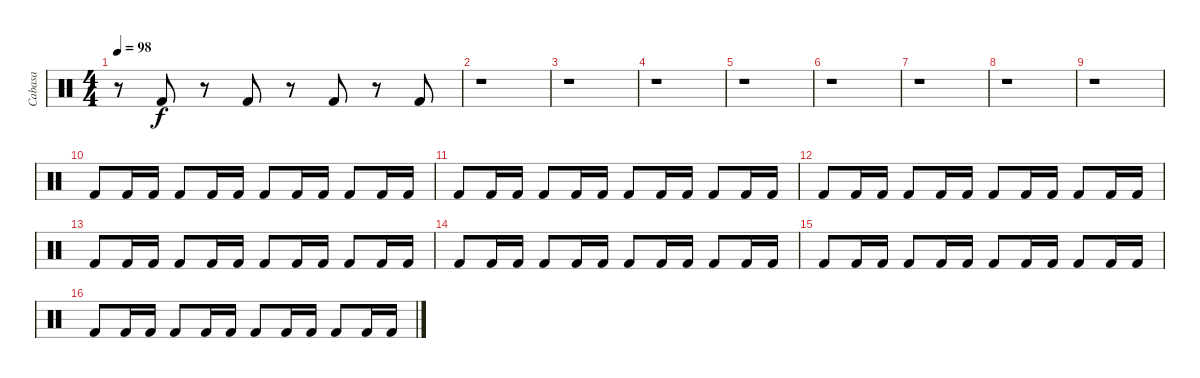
\track ("Cabasa" "Cabasa") {instrument percussion}
\staff {score}
\articulation defaults
\ts (4 4)
\tempo 98
\clef neutral
\ks c
r.8{dy f} "Kick (hit) 2".8 r.8 "Kick (hit) 2".8 r.8 "Kick (hit) 2".8 r.8 "Kick (hit) 2".8 |
r.1 |
r.1 |
r.1 |
r.1 |
r.1 |
r.1 |
r.1 |
r.1 |
"Kick (hit) 2".8 "Kick (hit) 2".16 "Kick (hit) 2".16 "Kick (hit) 2".8 "Kick (hit) 2".16 "Kick (hit) 2".16 "Kick (hit) 2".8 "Kick (hit) 2".16 "Kick (hit) 2".16 "Kick (hit) 2".8 "Kick (hit) 2".16 "Kick (hit) 2".16 |
"Kick (hit) 2".8 "Kick (hit) 2".16 "Kick (hit) 2".16 "Kick (hit) 2".8 "Kick (hit) 2".16 "Kick (hit) 2".16 "Kick (hit) 2".8 "Kick (hit) 2".16 "Kick (hit) 2".16 "Kick (hit) 2".8 "Kick (hit) 2".16 "Kick (hit) 2".16 |
"Kick (hit) 2".8 "Kick (hit) 2".16 "Kick (hit) 2".16 "Kick (hit) 2".8 "Kick (hit) 2".16 "Kick (hit) 2".16 "Kick (hit) 2".8 "Kick (hit) 2".16 "Kick (hit) 2".16 "Kick (hit) 2".8 "Kick (hit) 2".16 "Kick (hit) 2".16 |
"Kick (hit) 2".8 "Kick (hit) 2".16 "Kick (hit) 2".16 "Kick (hit) 2".8 "Kick (hit) 2".16 "Kick (hit) 2".16 "Kick (hit) 2".8 "Kick (hit) 2".16 "Kick (hit) 2".16 "Kick (hit) 2".8 "Kick (hit) 2".16 "Kick (hit) 2".16 |
"Kick (hit) 2".8 "Kick (hit) 2".16 "Kick (hit) 2".16 "Kick (hit) 2".8 "Kick (hit) 2".16 "Kick (hit) 2".16 "Kick (hit) 2".8 "Kick (hit) 2".16 "Kick (hit) 2".16 "Kick (hit) 2".8 "Kick (hit) 2".16 "Kick (hit) 2".16 |
"Kick (hit) 2".8 "Kick (hit) 2".16 "Kick (hit) 2".16 "Kick (hit) 2".8 "Kick (hit) 2".16 "Kick (hit) 2".16 "Kick (hit) 2".8 "Kick (hit) 2".16 "Kick (hit) 2".16 "Kick (hit) 2".8 "Kick (hit) 2".16 "Kick (hit) 2".16 |
"Kick (hit) 2".8 "Kick (hit) 2".16 "Kick (hit) 2".16 "Kick (hit) 2".8 "Kick (hit) 2".16 "Kick (hit) 2".16 "Kick (hit) 2".8 "Kick (hit) 2".16 "Kick (hit) 2".16 "Kick (hit) 2".8 "Kick (hit) 2".16 "Kick (hit) 2".16
